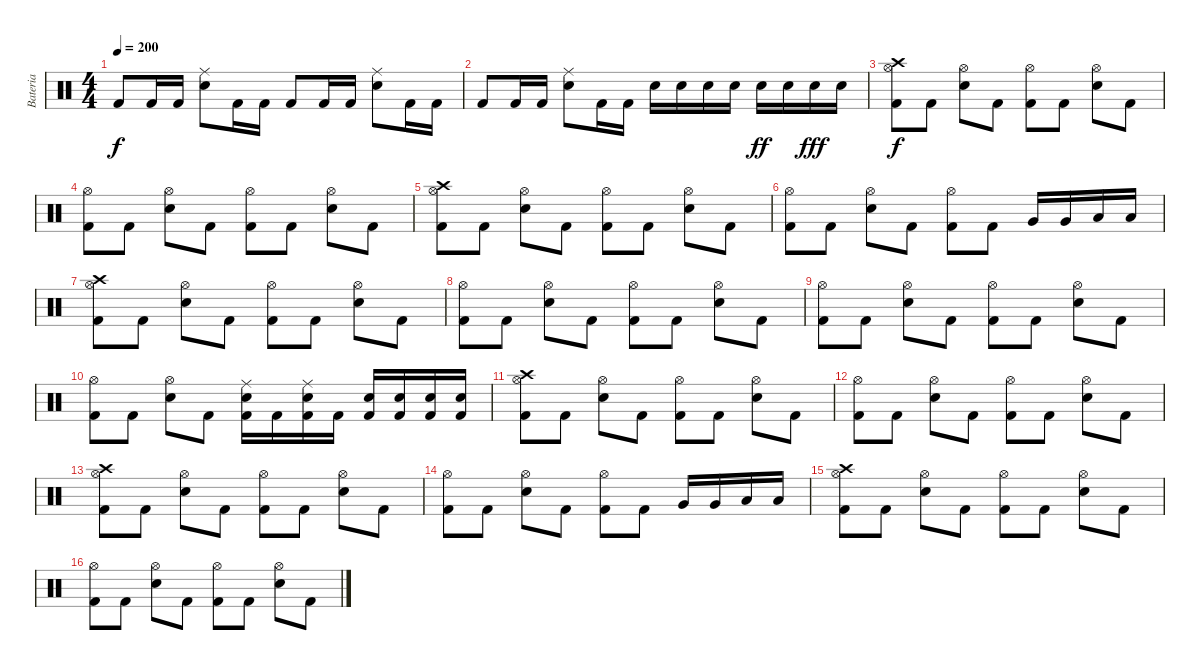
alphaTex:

\track ("Bateria" "Bateria") {instrument percussion}
\staff {score}
\articulation defaults
\ts (4 4)
\tempo 200
\clef neutral
\ks c "Kick (hit) 2".8{dy f} "Kick (hit) 2".16 "Kick (hit) 2".16
("Electric Snare (hit)" "Ride (middle)").8 "Kick (hit) 2".16 "Kick (hit) 2".16 "Kick (hit) 2".8 "Kick (hit) 2".16 "Kick (hit) 2".16 ("Electric Snare (hit)" "Ride (middle)").8 "Kick (hit) 2".16 "Kick (hit) 2".16 |
"Kick (hit) 2".8 "Kick (hit) 2".16 "Kick (hit) 2".16 ("Electric Snare (hit)" "Ride (middle)").8 "Kick (hit) 2".16 "Kick (hit) 2".16 "Electric Snare (hit)".16 "Electric Snare (hit)".16 "Electric Snare (hit)".16 "Electric Snare (hit)".16 "Electric Snare (hit)".16{dy ff} "Electric Snare (hit)".16 "Electric Snare (hit)".16{dy fff} "Electric Snare (hit)".16 |
("Kick (hit) 2" "Hi-Hat (open)" "Crash high (hit)").8{dy f} "Kick (hit) 2".8 ("Electric Snare (hit)" "Hi-Hat (open)").8 "Kick (hit) 2".8 ("Kick (hit) 2" "Hi-Hat (open)").8 "Kick (hit) 2".8 ("Electric Snare (hit)" "Hi-Hat (open)").8 "Kick (hit) 2".8 |
("Kick (hit) 2" "Hi-Hat (open)").8 "Kick (hit) 2".8 ("Electric Snare (hit)" "Hi-Hat (open)").8 "Kick (hit) 2".8 ("Kick (hit) 2" "Hi-Hat (open)").8 "Kick (hit) 2".8 ("Electric Snare (hit)" "Hi-Hat (open)").8 "Kick (hit) 2".8 |
("Kick (hit) 2" "Hi-Hat (open)" "Crash high (hit)").8 "Kick (hit) 2".8 ("Electric Snare (hit)" "Hi-Hat (open)").8 "Kick (hit) 2".8 ("Kick (hit) 2" "Hi-Hat (open)").8 "Kick (hit) 2".8 ("Electric Snare (hit)" "Hi-Hat (open)").8 "Kick (hit) 2".8 |
("Kick (hit) 2" "Hi-Hat (open)").8 "Kick (hit) 2".8 ("Electric Snare (hit)" "Hi-Hat (open)").8 "Kick (hit) 2".8 ("Kick (hit) 2" "Hi-Hat (open)").8 "Kick (hit) 2".8 "Very Low Tom (hit)".16 "Very Low Tom (hit)".16 "Low Floor Tom (hit)".16 "Low Floor Tom (hit)".16 |
("Kick (hit) 2" "Hi-Hat (open)" "Crash high (hit)").8 "Kick (hit) 2".8 ("Electric Snare (hit)" "Hi-Hat (open)").8 "Kick (hit) 2".8 ("Kick (hit) 2" "Hi-Hat (open)").8 "Kick (hit) 2".8 ("Electric Snare (hit)" "Hi-Hat (open)").8 "Kick (hit) 2".8 |
("Kick (hit) 2" "Hi-Hat (open)").8 "Kick (hit) 2".8 ("Electric Snare (hit)" "Hi-Hat (open)").8 "Kick (hit) 2".8 ("Kick (hit) 2" "Hi-Hat (open)").8 "Kick (hit) 2".8 ("Electric Snare (hit)" "Hi-Hat (open)").8 "Kick (hit) 2".8 |
("Kick (hit) 2" "Hi-Hat (open)").8 "Kick (hit) 2".8 ("Electric Snare (hit)" "Hi-Hat (open)").8 "Kick (hit) 2".8 ("Kick (hit) 2" "Hi-Hat (open)").8 "Kick (hit) 2".8 ("Electric Snare (hit)" "Hi-Hat (open)").8 "Kick (hit) 2".8 |
("Kick (hit) 2" "Hi-Hat (open)").8 "Kick (hit) 2".8 ("Electric Snare (hit)" "Hi-Hat (open)").8 "Kick (hit) 2".8 ("Kick (hit) 2" "Electric Snare (hit)" "Ride (middle)").16 "Kick (hit) 2".16 ("Kick (hit) 2" "Electric Snare (hit)" "Ride (middle)").16 "Kick (hit) 2".16 ("Kick (hit) 2" "Electric Snare (hit)").16 ("Kick (hit) 2" "Electric Snare (hit)").16 ("Kick (hit) 2" "Electric Snare (hit)").16 ("Kick (hit) 2" "Electric Snare (hit)").16 |
("Kick (hit) 2" "Hi-Hat (open)" "Crash high (hit)").8 "Kick (hit) 2".8 ("Electric Snare (hit)" "Hi-Hat (open)").8 "Kick (hit) 2".8 ("Kick (hit) 2" "Hi-Hat (open)").8 "Kick (hit) 2".8 ("Electric Snare (hit)" "Hi-Hat (open)").8 "Kick (hit) 2".8 |
("Kick (hit) 2" "Hi-Hat (open)").8 "Kick (hit) 2".8 ("Electric Snare (hit)" "Hi-Hat (open)").8 "Kick (hit) 2".8 ("Kick (hit) 2" "Hi-Hat (open)").8 "Kick (hit) 2".8 ("Electric Snare (hit)" "Hi-Hat (open)").8 "Kick (hit) 2".8 |
("Kick (hit) 2" "Hi-Hat (open)" "Crash high (hit)").8 "Kick (hit) 2".8 ("Electric Snare (hit)" "Hi-Hat (open)").8 "Kick (hit) 2".8 ("Kick (hit) 2" "Hi-Hat (open)").8 "Kick (hit) 2".8 ("Electric Snare (hit)" "Hi-Hat (open)").8 "Kick (hit) 2".8 |
("Kick (hit) 2" "Hi-Hat (open)").8 "Kick (hit) 2".8 ("Electric Snare (hit)" "Hi-Hat (open)").8 "Kick (hit) 2".8 ("Kick (hit) 2" "Hi-Hat (open)").8 "Kick (hit) 2".8 "Very Low Tom (hit)".16 "Very Low Tom (hit)".16 "Low Floor Tom (hit)".16 "Low Floor Tom (hit)".16 |
("Kick (hit) 2" "Hi-Hat (open)" "Crash high (hit)").8 "Kick (hit) 2".8 ("Electric Snare (hit)" "Hi-Hat (open)").8 "Kick (hit) 2".8 ("Kick (hit) 2" "Hi-Hat (open)").8 "Kick (hit) 2".8 ("Electric Snare (hit)" "Hi-Hat (open)").8 "Kick (hit) 2".8 |
("Kick (hit) 2" "Hi-Hat (open)").8 "Kick (hit) 2".8 ("Electric Snare (hit)" "Hi-Hat (open)").8 "Kick (hit) 2".8 ("Kick (hit) 2" "Hi-Hat (open)").8 "Kick (hit) 2".8 ("Electric Snare (hit)" "Hi-Hat (open)").8 "Kick (hit) 2".8
